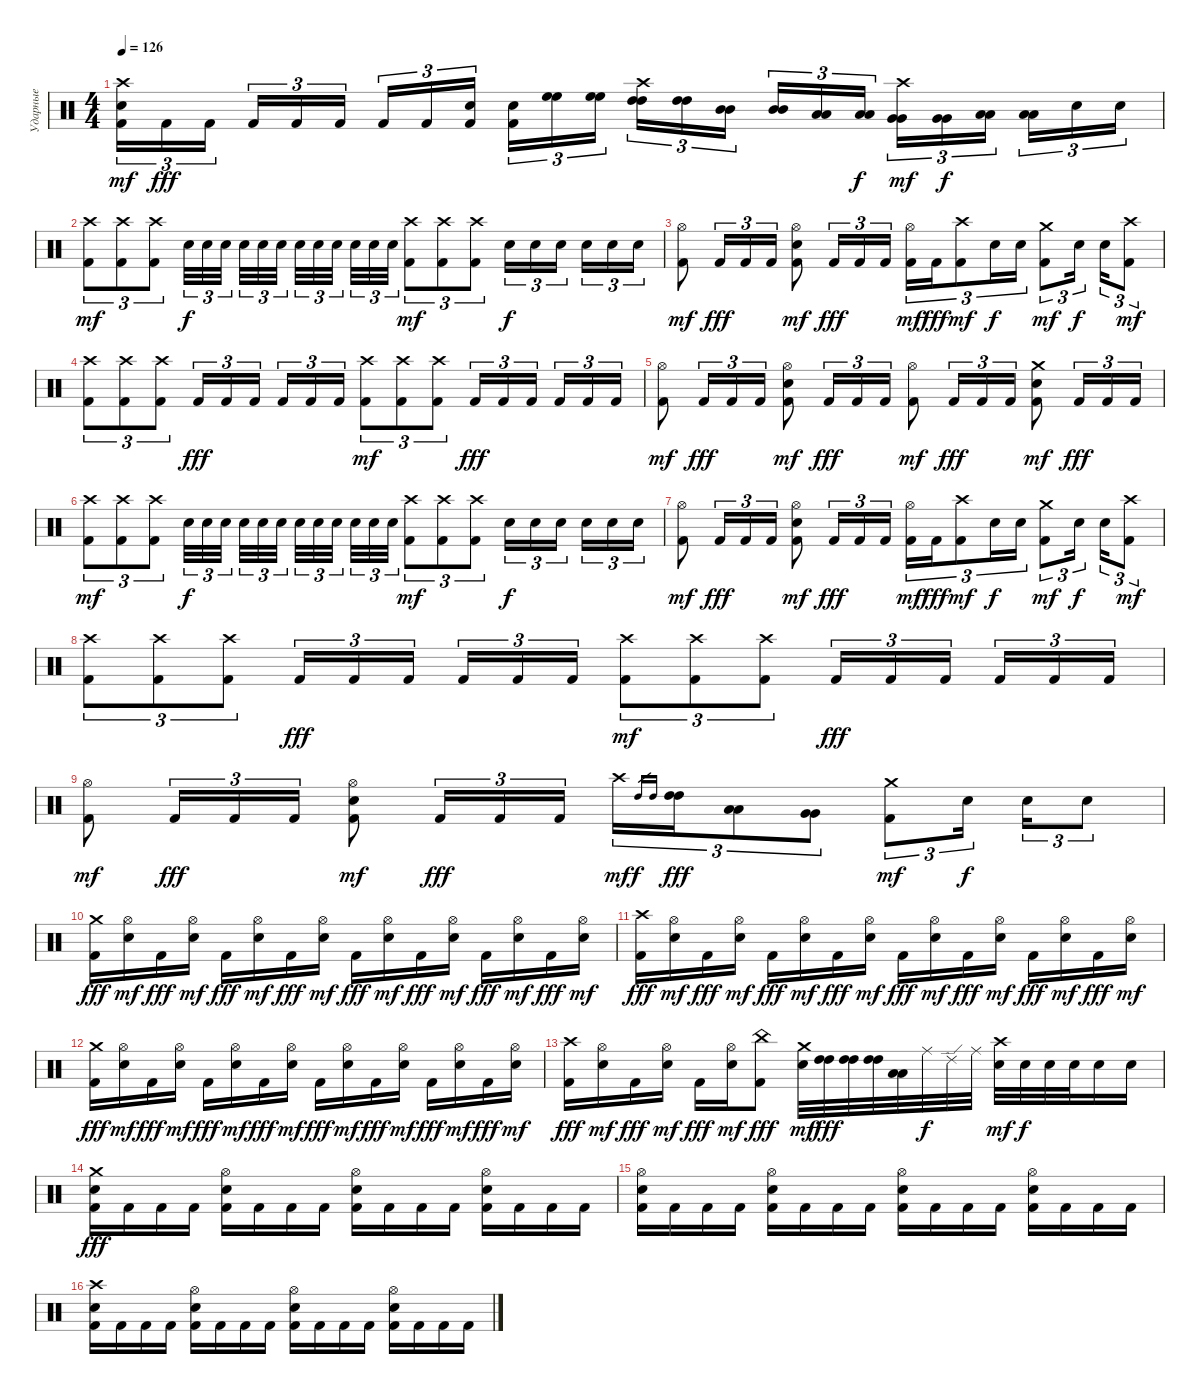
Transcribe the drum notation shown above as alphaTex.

\track ("Ударные" "Ударные") {instrument percussion}
\staff {score}
\articulation defaults
\ts (4 4)
\tempo 126
\clef neutral
\ks c
("Kick (hit) 2" "Electric Snare (hit)" "Crash high (hit)").16{tu (3 2) dy mf} "Kick (hit) 2".16{tu (3 2) dy fff} "Kick (hit) 2".16{tu (3 2)} "Kick (hit) 2".16{tu (3 2)} "Kick (hit) 2".16{tu (3 2)} "Kick (hit) 2".16{tu (3 2)} "Kick (hit) 2".16{tu (3 2)} "Kick (hit) 2".16{tu (3 2)} ("Kick (hit) 2" "Electric Snare (hit)").16{tu (3 2)} ("Kick (hit) 2" "Electric Snare (hit)").16{tu (3 2)} ("High Floor Tom (hit)" "High Floor Tom (hit)").16{tu (3 2)} ("High Floor Tom (hit)" "High Floor Tom (hit)").16{tu (3 2)} ("Crash high (hit)" "High Tom (hit)" "High Tom (hit)").16{tu (3 2)} ("High Tom (hit)" "High Tom (hit)").16{tu (3 2)} ("Mid Tom (hit)" "Mid Tom (hit)").16{tu (3 2)} ("Mid Tom (hit)" "Mid Tom (hit)").16{tu (3 2)} ("Low Tom (hit)" "Low Tom (hit)").16{tu (3 2)} ("Low Tom (hit)" "Low Tom (hit)").16{tu (3 2) dy f} ("Crash high (hit)" "Very Low Tom (hit)" "Very Low Tom (hit)").16{tu (3 2) dy mf} ("Very Low Tom (hit)" "Very Low Tom (hit)").16{tu (3 2) dy f} ("Low Floor Tom (hit)" "Low Floor Tom (hit)").16{tu (3 2)} ("Low Floor Tom (hit)" "Low Floor Tom (hit)").16{tu (3 2)} "Electric Snare (hit)".16{tu (3 2)} "Electric Snare (hit)".16{tu (3 2)} |
("Kick (hit) 2" "Crash high (hit)").8{tu (3 2) dy mf} ("Kick (hit) 2" "Crash high (hit)").8{tu (3 2)} ("Kick (hit) 2" "Crash high (hit)").8{tu (3 2)} "Electric Snare (hit)".32{tu (3 2) dy f} "Electric Snare (hit)".32{tu (3 2)} "Electric Snare (hit)".32{tu (3 2)} "Electric Snare (hit)".32{tu (3 2)} "Electric Snare (hit)".32{tu (3 2)} "Electric Snare (hit)".32{tu (3 2)} "Electric Snare (hit)".32{tu (3 2)} "Electric Snare (hit)".32{tu (3 2)} "Electric Snare (hit)".32{tu (3 2)} "Electric Snare (hit)".32{tu (3 2)} "Electric Snare (hit)".32{tu (3 2)} "Electric Snare (hit)".32{tu (3 2)} ("Kick (hit) 2" "Crash high (hit)").8{tu (3 2) dy mf} ("Kick (hit) 2" "Crash high (hit)").8{tu (3 2)} ("Kick (hit) 2" "Crash high (hit)").8{tu (3 2)} "Electric Snare (hit)".16{tu (3 2) dy f} "Electric Snare (hit)".16{tu (3 2)} "Electric Snare (hit)".16{tu (3 2)} "Electric Snare (hit)".16{tu (3 2)} "Electric Snare (hit)".16{tu (3 2)} "Electric Snare (hit)".16{tu (3 2)} |
("Kick (hit) 2" "Hi-Hat (open)").8{dy mf} "Kick (hit) 2".16{tu (3 2) dy fff} "Kick (hit) 2".16{tu (3 2)} "Kick (hit) 2".16{tu (3 2)} ("Kick (hit) 2" "Electric Snare (hit)" "Hi-Hat (open)").8{dy mf} "Kick (hit) 2".16{tu (3 2) dy fff} "Kick (hit) 2".16{tu (3 2)} "Kick (hit) 2".16{tu (3 2)} ("Kick (hit) 2" "Hi-Hat (open)").16{tu (3 2) dy mf} "Kick (hit) 2".16{tu (3 2) dy fff} ("Kick (hit) 2" "Crash high (hit)").8{tu (3 2) dy mf} "Electric Snare (hit)".16{tu (3 2) dy f} "Electric Snare (hit)".16{tu (3 2)} ("Kick (hit) 2" "Crash medium (hit)").8{tu (3 2) dy mf} "Electric Snare (hit)".16{tu (3 2) dy f} "Electric Snare (hit)".16{tu (3 2)} ("Kick (hit) 2" "Crash high (hit)").8{tu (3 2) dy mf} |
("Kick (hit) 2" "Crash high (hit)").8{tu (3 2)} ("Kick (hit) 2" "Crash high (hit)").8{tu (3 2)} ("Kick (hit) 2" "Crash high (hit)").8{tu (3 2)} "Kick (hit) 2".16{tu (3 2) dy fff} "Kick (hit) 2".16{tu (3 2)} "Kick (hit) 2".16{tu (3 2)} "Kick (hit) 2".16{tu (3 2)} "Kick (hit) 2".16{tu (3 2)} "Kick (hit) 2".16{tu (3 2)} ("Kick (hit) 2" "Crash high (hit)").8{tu (3 2) dy mf} ("Kick (hit) 2" "Crash high (hit)").8{tu (3 2)} ("Kick (hit) 2" "Crash high (hit)").8{tu (3 2)} "Kick (hit) 2".16{tu (3 2) dy fff} "Kick (hit) 2".16{tu (3 2)} "Kick (hit) 2".16{tu (3 2)} "Kick (hit) 2".16{tu (3 2)} "Kick (hit) 2".16{tu (3 2)} "Kick (hit) 2".16{tu (3 2)} |
("Kick (hit) 2" "Hi-Hat (open)").8{dy mf} "Kick (hit) 2".16{tu (3 2) dy fff} "Kick (hit) 2".16{tu (3 2)} "Kick (hit) 2".16{tu (3 2)} ("Kick (hit) 2" "Electric Snare (hit)" "Hi-Hat (open)").8{dy mf} "Kick (hit) 2".16{tu (3 2) dy fff} "Kick (hit) 2".16{tu (3 2)} "Kick (hit) 2".16{tu (3 2)} ("Kick (hit) 2" "Hi-Hat (open)").8{dy mf} "Kick (hit) 2".16{tu (3 2) dy fff} "Kick (hit) 2".16{tu (3 2)} "Kick (hit) 2".16{tu (3 2)} ("Kick (hit) 2" "Electric Snare (hit)" "Crash medium (hit)").8{dy mf} "Kick (hit) 2".16{tu (3 2) dy fff} "Kick (hit) 2".16{tu (3 2)} "Kick (hit) 2".16{tu (3 2)} |
("Kick (hit) 2" "Crash high (hit)").8{tu (3 2) dy mf} ("Kick (hit) 2" "Crash high (hit)").8{tu (3 2)} ("Kick (hit) 2" "Crash high (hit)").8{tu (3 2)} "Electric Snare (hit)".32{tu (3 2) dy f} "Electric Snare (hit)".32{tu (3 2)} "Electric Snare (hit)".32{tu (3 2)} "Electric Snare (hit)".32{tu (3 2)} "Electric Snare (hit)".32{tu (3 2)} "Electric Snare (hit)".32{tu (3 2)} "Electric Snare (hit)".32{tu (3 2)} "Electric Snare (hit)".32{tu (3 2)} "Electric Snare (hit)".32{tu (3 2)} "Electric Snare (hit)".32{tu (3 2)} "Electric Snare (hit)".32{tu (3 2)} "Electric Snare (hit)".32{tu (3 2)} ("Kick (hit) 2" "Crash high (hit)").8{tu (3 2) dy mf} ("Kick (hit) 2" "Crash high (hit)").8{tu (3 2)} ("Kick (hit) 2" "Crash high (hit)").8{tu (3 2)} "Electric Snare (hit)".16{tu (3 2) dy f} "Electric Snare (hit)".16{tu (3 2)} "Electric Snare (hit)".16{tu (3 2)} "Electric Snare (hit)".16{tu (3 2)} "Electric Snare (hit)".16{tu (3 2)} "Electric Snare (hit)".16{tu (3 2)} |
("Kick (hit) 2" "Hi-Hat (open)").8{dy mf} "Kick (hit) 2".16{tu (3 2) dy fff} "Kick (hit) 2".16{tu (3 2)} "Kick (hit) 2".16{tu (3 2)} ("Kick (hit) 2" "Electric Snare (hit)" "Hi-Hat (open)").8{dy mf} "Kick (hit) 2".16{tu (3 2) dy fff} "Kick (hit) 2".16{tu (3 2)} "Kick (hit) 2".16{tu (3 2)} ("Kick (hit) 2" "Hi-Hat (open)").16{tu (3 2) dy mf} "Kick (hit) 2".16{tu (3 2) dy fff} ("Kick (hit) 2" "Crash high (hit)").8{tu (3 2) dy mf} "Electric Snare (hit)".16{tu (3 2) dy f} "Electric Snare (hit)".16{tu (3 2)} ("Kick (hit) 2" "Crash medium (hit)").8{tu (3 2) dy mf} "Electric Snare (hit)".16{tu (3 2) dy f} "Electric Snare (hit)".16{tu (3 2)} ("Kick (hit) 2" "Crash high (hit)").8{tu (3 2) dy mf} |
("Kick (hit) 2" "Crash high (hit)").8{tu (3 2)} ("Kick (hit) 2" "Crash high (hit)").8{tu (3 2)} ("Kick (hit) 2" "Crash high (hit)").8{tu (3 2)} "Kick (hit) 2".16{tu (3 2) dy fff} "Kick (hit) 2".16{tu (3 2)} "Kick (hit) 2".16{tu (3 2)} "Kick (hit) 2".16{tu (3 2)} "Kick (hit) 2".16{tu (3 2)} "Kick (hit) 2".16{tu (3 2)} ("Kick (hit) 2" "Crash high (hit)").8{tu (3 2) dy mf} ("Kick (hit) 2" "Crash high (hit)").8{tu (3 2)} ("Kick (hit) 2" "Crash high (hit)").8{tu (3 2)} "Kick (hit) 2".16{tu (3 2) dy fff} "Kick (hit) 2".16{tu (3 2)} "Kick (hit) 2".16{tu (3 2)} "Kick (hit) 2".16{tu (3 2)} "Kick (hit) 2".16{tu (3 2)} "Kick (hit) 2".16{tu (3 2)} |
("Kick (hit) 2" "Hi-Hat (open)").8{dy mf} "Kick (hit) 2".16{tu (3 2) dy fff} "Kick (hit) 2".16{tu (3 2)} "Kick (hit) 2".16{tu (3 2)} ("Kick (hit) 2" "Electric Snare (hit)" "Hi-Hat (open)").8{dy mf} "Kick (hit) 2".16{tu (3 2) dy fff} "Kick (hit) 2".16{tu (3 2)} "Kick (hit) 2".16{tu (3 2)} "Crash high (hit)".16{tu (3 2) dy mf} "High Tom (hit)".16{gr dy f} "High Tom (hit)".16{gr} ("High Tom (hit)" "High Tom (hit)").16{tu (3 2) dy fff} ("Low Tom (hit)" "Low Tom (hit)").8{tu (3 2)} ("Very Low Tom (hit)" "Very Low Tom (hit)").8{tu (3 2)} ("Kick (hit) 2" "Crash medium (hit)").8{tu (3 2) dy mf} "Electric Snare (hit)".16{tu (3 2) dy f} "Electric Snare (hit)".16{tu (3 2)} "Electric Snare (hit)".8{tu (3 2)} |
("Crash medium (hit)" "Kick (hit) 2").16{dy fff} ("Hi-Hat (open)" "Electric Snare (hit)").16{dy mf} "Kick (hit) 2".16{dy fff} ("Hi-Hat (open)" "Electric Snare (hit)").16{dy mf} "Kick (hit) 2".16{dy fff} ("Hi-Hat (open)" "Electric Snare (hit)").16{dy mf} "Kick (hit) 2".16{dy fff} ("Hi-Hat (open)" "Electric Snare (hit)").16{dy mf} "Kick (hit) 2".16{dy fff} ("Hi-Hat (open)" "Electric Snare (hit)").16{dy mf} "Kick (hit) 2".16{dy fff} ("Hi-Hat (open)" "Electric Snare (hit)").16{dy mf} "Kick (hit) 2".16{dy fff} ("Hi-Hat (open)" "Electric Snare (hit)").16{dy mf} "Kick (hit) 2".16{dy fff} ("Hi-Hat (open)" "Electric Snare (hit)").16{dy mf} |
("Crash high (hit)" "Kick (hit) 2").16{dy fff} ("Hi-Hat (open)" "Electric Snare (hit)").16{dy mf} "Kick (hit) 2".16{dy fff} ("Hi-Hat (open)" "Electric Snare (hit)").16{dy mf} "Kick (hit) 2".16{dy fff} ("Hi-Hat (open)" "Electric Snare (hit)").16{dy mf} "Kick (hit) 2".16{dy fff} ("Hi-Hat (open)" "Electric Snare (hit)").16{dy mf} "Kick (hit) 2".16{dy fff} ("Hi-Hat (open)" "Electric Snare (hit)").16{dy mf} "Kick (hit) 2".16{dy fff} ("Hi-Hat (open)" "Electric Snare (hit)").16{dy mf} "Kick (hit) 2".16{dy fff} ("Hi-Hat (open)" "Electric Snare (hit)").16{dy mf} "Kick (hit) 2".16{dy fff} ("Hi-Hat (open)" "Electric Snare (hit)").16{dy mf} |
("Crash medium (hit)" "Kick (hit) 2").16{dy fff} ("Hi-Hat (open)" "Electric Snare (hit)").16{dy mf} "Kick (hit) 2".16{dy fff} ("Hi-Hat (open)" "Electric Snare (hit)").16{dy mf} "Kick (hit) 2".16{dy fff} ("Hi-Hat (open)" "Electric Snare (hit)").16{dy mf} "Kick (hit) 2".16{dy fff} ("Hi-Hat (open)" "Electric Snare (hit)").16{dy mf} "Kick (hit) 2".16{dy fff} ("Hi-Hat (open)" "Electric Snare (hit)").16{dy mf} "Kick (hit) 2".16{dy fff} ("Hi-Hat (open)" "Electric Snare (hit)").16{dy mf} "Kick (hit) 2".16{dy fff} ("Hi-Hat (open)" "Electric Snare (hit)").16{dy mf} "Kick (hit) 2".16{dy fff} ("Hi-Hat (open)" "Electric Snare (hit)").16{dy mf} |
("Crash high (hit)" "Kick (hit) 2").16{dy fff} ("Hi-Hat (open)" "Electric Snare (hit)").16{dy mf} "Kick (hit) 2".16{dy fff} ("Hi-Hat (open)" "Electric Snare (hit)").16{dy mf} "Kick (hit) 2".16{dy fff} ("Hi-Hat (open)" "Electric Snare (hit)").16{dy mf} ("China (hit)" "Kick (hit) 2").8{dy fff} ("Crash medium (hit)" "Electric Snare (hit)").32{dy mf} ("High Tom (hit)" "High Tom (hit)").32{dy fff} ("High Tom (hit)" "High Tom (hit)").32 ("High Tom (hit)" "High Tom (hit)").32 ("Low Tom (hit)" "Low Tom (hit)").32 "Ride (middle)".32{dy f} "Ride (edge) 2".32 "Ride (middle)".32 ("Crash high (hit)" "Electric Snare (hit)").32{dy mf} "Electric Snare (hit)".32{dy f} "Electric Snare (hit)".32 "Electric Snare (hit)".32 "Electric Snare (hit)".16 "Electric Snare (hit)".16 |
("Crash medium (hit)" "Electric Snare (hit)" "Kick (hit) 2").16{dy fff} "Kick (hit) 2".16 "Kick (hit) 2".16 "Kick (hit) 2".16 ("Hi-Hat (open)" "Electric Snare (hit)" "Kick (hit) 2").16 "Kick (hit) 2".16 "Kick (hit) 2".16 "Kick (hit) 2".16 ("Hi-Hat (open)" "Electric Snare (hit)" "Kick (hit) 2").16 "Kick (hit) 2".16 "Kick (hit) 2".16 "Kick (hit) 2".16 ("Hi-Hat (open)" "Electric Snare (hit)" "Kick (hit) 2").16 "Kick (hit) 2".16 "Kick (hit) 2".16 "Kick (hit) 2".16 |
("Hi-Hat (open)" "Electric Snare (hit)" "Kick (hit) 2").16 "Kick (hit) 2".16 "Kick (hit) 2".16 "Kick (hit) 2".16 ("Hi-Hat (open)" "Electric Snare (hit)" "Kick (hit) 2").16 "Kick (hit) 2".16 "Kick (hit) 2".16 "Kick (hit) 2".16 ("Hi-Hat (open)" "Electric Snare (hit)" "Kick (hit) 2").16 "Kick (hit) 2".16 "Kick (hit) 2".16 "Kick (hit) 2".16 ("Hi-Hat (open)" "Electric Snare (hit)" "Kick (hit) 2").16 "Kick (hit) 2".16 "Kick (hit) 2".16 "Kick (hit) 2".16 |
("Crash high (hit)" "Electric Snare (hit)" "Kick (hit) 2").16 "Kick (hit) 2".16 "Kick (hit) 2".16 "Kick (hit) 2".16 ("Hi-Hat (open)" "Electric Snare (hit)" "Kick (hit) 2").16 "Kick (hit) 2".16 "Kick (hit) 2".16 "Kick (hit) 2".16 ("Hi-Hat (open)" "Electric Snare (hit)" "Kick (hit) 2").16 "Kick (hit) 2".16 "Kick (hit) 2".16 "Kick (hit) 2".16 ("Hi-Hat (open)" "Electric Snare (hit)" "Kick (hit) 2").16 "Kick (hit) 2".16 "Kick (hit) 2".16 "Kick (hit) 2".16
